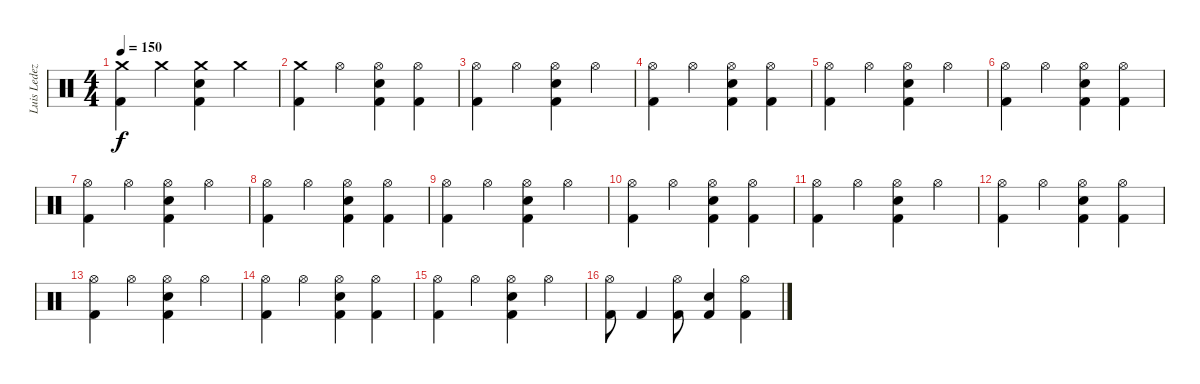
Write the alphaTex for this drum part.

\track ("Luis Ledezma" "Luis Ledez") {instrument percussion}
\staff {score}
\articulation defaults
\ts (4 4)
\tempo 150
\clef neutral
\ks c
("Crash medium (hit)" "Kick (hit) 2").4{dy f} "Crash medium (hit)".4 ("Crash medium (hit)" "Electric Snare (hit)" "Kick (hit) 2").4 "Crash medium (hit)".4 |
("Crash medium (hit)" "Kick (hit) 2").4 "Hi-Hat (open)".4 ("Hi-Hat (open)" "Electric Snare (hit)" "Kick (hit) 2").4 ("Hi-Hat (open)" "Kick (hit) 2").4 |
("Hi-Hat (open)" "Kick (hit) 2").4 "Hi-Hat (open)".4 ("Hi-Hat (open)" "Electric Snare (hit)" "Kick (hit) 2").4 "Hi-Hat (open)".4 |
("Hi-Hat (open)" "Kick (hit) 2").4 "Hi-Hat (open)".4 ("Hi-Hat (open)" "Electric Snare (hit)" "Kick (hit) 2").4 ("Hi-Hat (open)" "Kick (hit) 2").4 |
("Hi-Hat (open)" "Kick (hit) 2").4 "Hi-Hat (open)".4 ("Hi-Hat (open)" "Electric Snare (hit)" "Kick (hit) 2").4 "Hi-Hat (open)".4 |
("Hi-Hat (open)" "Kick (hit) 2").4 "Hi-Hat (open)".4 ("Hi-Hat (open)" "Electric Snare (hit)" "Kick (hit) 2").4 ("Hi-Hat (open)" "Kick (hit) 2").4 |
("Hi-Hat (open)" "Kick (hit) 2").4 "Hi-Hat (open)".4 ("Hi-Hat (open)" "Electric Snare (hit)" "Kick (hit) 2").4 "Hi-Hat (open)".4 |
("Hi-Hat (open)" "Kick (hit) 2").4 "Hi-Hat (open)".4 ("Hi-Hat (open)" "Electric Snare (hit)" "Kick (hit) 2").4 ("Hi-Hat (open)" "Kick (hit) 2").4 |
("Hi-Hat (open)" "Kick (hit) 2").4 "Hi-Hat (open)".4 ("Hi-Hat (open)" "Electric Snare (hit)" "Kick (hit) 2").4 "Hi-Hat (open)".4 |
("Hi-Hat (open)" "Kick (hit) 2").4 "Hi-Hat (open)".4 ("Hi-Hat (open)" "Electric Snare (hit)" "Kick (hit) 2").4 ("Hi-Hat (open)" "Kick (hit) 2").4 |
("Hi-Hat (open)" "Kick (hit) 2").4 "Hi-Hat (open)".4 ("Hi-Hat (open)" "Electric Snare (hit)" "Kick (hit) 2").4 "Hi-Hat (open)".4 |
("Hi-Hat (open)" "Kick (hit) 2").4 "Hi-Hat (open)".4 ("Hi-Hat (open)" "Electric Snare (hit)" "Kick (hit) 2").4 ("Hi-Hat (open)" "Kick (hit) 2").4 |
("Hi-Hat (open)" "Kick (hit) 2").4 "Hi-Hat (open)".4 ("Hi-Hat (open)" "Electric Snare (hit)" "Kick (hit) 2").4 "Hi-Hat (open)".4 |
("Hi-Hat (open)" "Kick (hit) 2").4 "Hi-Hat (open)".4 ("Hi-Hat (open)" "Electric Snare (hit)" "Kick (hit) 2").4 ("Hi-Hat (open)" "Kick (hit) 2").4 |
("Hi-Hat (open)" "Kick (hit) 2").4 "Hi-Hat (open)".4 ("Hi-Hat (open)" "Electric Snare (hit)" "Kick (hit) 2").4 "Hi-Hat (open)".4 |
("Hi-Hat (open)" "Kick (hit) 2").8 "Kick (hit) 2".4 ("Hi-Hat (open)" "Kick (hit) 2").8 ("Electric Snare (hit)" "Kick (hit) 2").4 ("Hi-Hat (open)" "Kick (hit) 2").4
